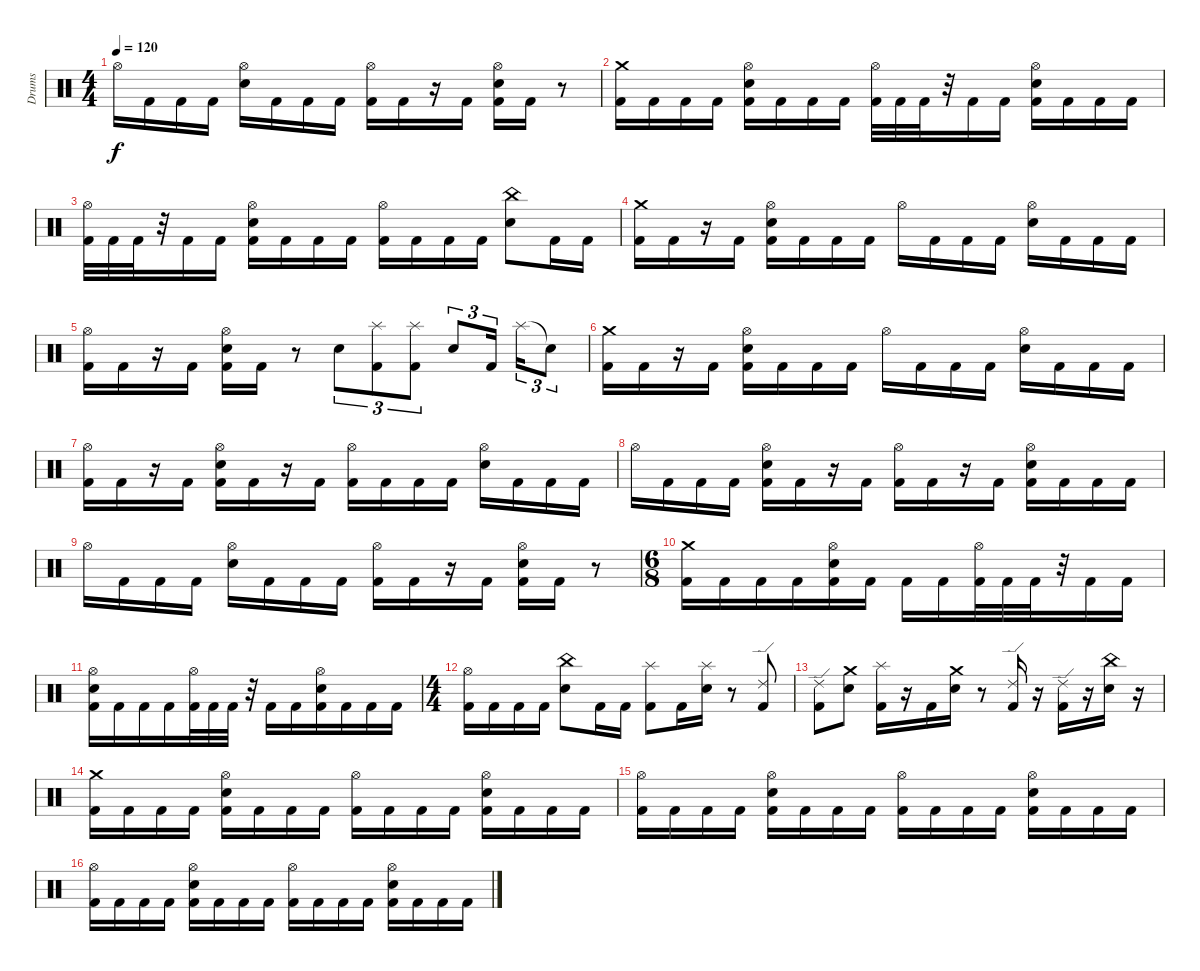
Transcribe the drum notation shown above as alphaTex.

\track ("Drums" "Drums") {instrument percussion}
\staff {score}
\articulation defaults
\ts (4 4)
\tempo 120
\clef neutral
\ks c "Hi-Hat (open)".16{dy f} "Kick (hit) 2".16 "Kick (hit) 2".16 "Kick (hit) 2".16
("Electric Snare (hit)" "Hi-Hat (open)").16 "Kick (hit) 2".16 "Kick (hit) 2".16 "Kick (hit) 2".16 ("Hi-Hat (open)" "Kick (hit) 2").16 "Kick (hit) 2".16 r.16 "Kick (hit) 2".16 ("Electric Snare (hit)" "Hi-Hat (open)" "Kick (hit) 2").16 "Kick (hit) 2".16 r.8 |
("Crash medium (hit)" "Kick (hit) 2").16 "Kick (hit) 2".16 "Kick (hit) 2".16 "Kick (hit) 2".16 ("Electric Snare (hit)" "Hi-Hat (open)" "Kick (hit) 2").16 "Kick (hit) 2".16 "Kick (hit) 2".16 "Kick (hit) 2".16 ("Hi-Hat (open)" "Kick (hit) 2").32 "Kick (hit) 2".32 "Kick (hit) 2".32 r.32 "Kick (hit) 2".16 "Kick (hit) 2".16 ("Electric Snare (hit)" "Hi-Hat (open)" "Kick (hit) 2").16 "Kick (hit) 2".16 "Kick (hit) 2".16 "Kick (hit) 2".16 |
("Hi-Hat (open)" "Kick (hit) 2").32 "Kick (hit) 2".32 "Kick (hit) 2".32 r.32 "Kick (hit) 2".16 "Kick (hit) 2".16 ("Electric Snare (hit)" "Hi-Hat (open)" "Kick (hit) 2").16 "Kick (hit) 2".16 "Kick (hit) 2".16 "Kick (hit) 2".16 ("Hi-Hat (open)" "Kick (hit) 2").16 "Kick (hit) 2".16 "Kick (hit) 2".16 "Kick (hit) 2".16 ("China (hit)" "Electric Snare (hit)").8 "Kick (hit) 2".16 "Kick (hit) 2".16 |
("Crash medium (hit)" "Kick (hit) 2").16 "Kick (hit) 2".16 r.16 "Kick (hit) 2".16 ("Electric Snare (hit)" "Hi-Hat (open)" "Kick (hit) 2").16 "Kick (hit) 2".16 "Kick (hit) 2".16 "Kick (hit) 2".16 "Hi-Hat (open)".16 "Kick (hit) 2".16 "Kick (hit) 2".16 "Kick (hit) 2".16 ("Electric Snare (hit)" "Hi-Hat (open)").16 "Kick (hit) 2".16 "Kick (hit) 2".16 "Kick (hit) 2".16 |
("Hi-Hat (open)" "Kick (hit) 2").16 "Kick (hit) 2".16 r.16 "Kick (hit) 2".16 ("Electric Snare (hit)" "Hi-Hat (open)" "Kick (hit) 2").16 "Kick (hit) 2".16 r.8 "Electric Snare (hit)".8{tu (3 2)} ("Splash (hit)" "Kick (hit) 2").8{tu (3 2)} ("Splash (hit)" "Kick (hit) 2").8{tu (3 2)} "Electric Snare (hit)".8{tu (3 2)} "Kick (hit) 2".16{tu (3 2)} "Splash (hit)".16{tu (3 2)} "Snare (hit)"{t}.8{tu (3 2)} |
("Crash medium (hit)" "Kick (hit) 2").16 "Kick (hit) 2".16 r.16 "Kick (hit) 2".16 ("Electric Snare (hit)" "Hi-Hat (open)" "Kick (hit) 2").16 "Kick (hit) 2".16 "Kick (hit) 2".16 "Kick (hit) 2".16 "Hi-Hat (open)".16 "Kick (hit) 2".16 "Kick (hit) 2".16 "Kick (hit) 2".16 ("Electric Snare (hit)" "Hi-Hat (open)").16 "Kick (hit) 2".16 "Kick (hit) 2".16 "Kick (hit) 2".16 |
("Hi-Hat (open)" "Kick (hit) 2").16 "Kick (hit) 2".16 r.16 "Kick (hit) 2".16 ("Electric Snare (hit)" "Hi-Hat (open)" "Kick (hit) 2").16 "Kick (hit) 2".16 r.16 "Kick (hit) 2".16 ("Hi-Hat (open)" "Kick (hit) 2").16 "Kick (hit) 2".16 "Kick (hit) 2".16 "Kick (hit) 2".16 ("Electric Snare (hit)" "Hi-Hat (open)").16 "Kick (hit) 2".16 "Kick (hit) 2".16 "Kick (hit) 2".16 |
"Hi-Hat (open)".16 "Kick (hit) 2".16 "Kick (hit) 2".16 "Kick (hit) 2".16 ("Electric Snare (hit)" "Hi-Hat (open)" "Kick (hit) 2").16 "Kick (hit) 2".16 r.16 "Kick (hit) 2".16 ("Hi-Hat (open)" "Kick (hit) 2").16 "Kick (hit) 2".16 r.16 "Kick (hit) 2".16 ("Electric Snare (hit)" "Hi-Hat (open)" "Kick (hit) 2").16 "Kick (hit) 2".16 "Kick (hit) 2".16 "Kick (hit) 2".16 |
"Hi-Hat (open)".16 "Kick (hit) 2".16 "Kick (hit) 2".16 "Kick (hit) 2".16 ("Electric Snare (hit)" "Hi-Hat (open)").16 "Kick (hit) 2".16 "Kick (hit) 2".16 "Kick (hit) 2".16 ("Hi-Hat (open)" "Kick (hit) 2").16 "Kick (hit) 2".16 r.16 "Kick (hit) 2".16 ("Electric Snare (hit)" "Hi-Hat (open)" "Kick (hit) 2").16 "Kick (hit) 2".16 r.8 |
\ts (6 8)
("Crash medium (hit)" "Kick (hit) 2").16 "Kick (hit) 2".16 "Kick (hit) 2".16 "Kick (hit) 2".16 ("Electric Snare (hit)" "Hi-Hat (open)" "Kick (hit) 2").16 "Kick (hit) 2".16 "Kick (hit) 2".16 "Kick (hit) 2".16 ("Hi-Hat (open)" "Kick (hit) 2").32 "Kick (hit) 2".32 "Kick (hit) 2".32 r.32 "Kick (hit) 2".16 "Kick (hit) 2".16 |
("Electric Snare (hit)" "Hi-Hat (open)" "Kick (hit) 2").16 "Kick (hit) 2".16 "Kick (hit) 2".16 "Kick (hit) 2".16 ("Hi-Hat (open)" "Kick (hit) 2").32 "Kick (hit) 2".32 "Kick (hit) 2".32 r.32 "Kick (hit) 2".16 "Kick (hit) 2".16 ("Electric Snare (hit)" "Hi-Hat (open)" "Kick (hit) 2").16 "Kick (hit) 2".16 "Kick (hit) 2".16 "Kick (hit) 2".16 |
\ts (4 4)
("Hi-Hat (open)" "Kick (hit) 2").16 "Kick (hit) 2".16 "Kick (hit) 2".16 "Kick (hit) 2".16 ("China (hit)" "Electric Snare (hit)").8 "Kick (hit) 2".16 "Kick (hit) 2".16 ("Splash (hit)" "Kick (hit) 2").8 "Kick (hit) 2".16 ("Splash (hit)" "Electric Snare (hit)").16 r.8 ("Ride (edge) 2" "Kick (hit) 2").8 |
("Ride (edge) 2" "Kick (hit) 2").8 ("Crash medium (hit)" "Electric Snare (hit)").8 ("Splash (hit)" "Kick (hit) 2").16 r.16 "Kick (hit) 2".16 ("Crash medium (hit)" "Electric Snare (hit)").16 r.8 ("Ride (edge) 2" "Kick (hit) 2").16 r.16 ("Ride (edge) 2" "Kick (hit) 2").16 r.16 ("China (hit)" "Electric Snare (hit)").16 r.16 |
("Crash medium (hit)" "Kick (hit) 2").16 "Kick (hit) 2".16 "Kick (hit) 2".16 "Kick (hit) 2".16 ("Hi-Hat (open)" "Electric Snare (hit)" "Kick (hit) 2").16 "Kick (hit) 2".16 "Kick (hit) 2".16 "Kick (hit) 2".16 ("Hi-Hat (open)" "Kick (hit) 2").16 "Kick (hit) 2".16 "Kick (hit) 2".16 "Kick (hit) 2".16 ("Hi-Hat (open)" "Electric Snare (hit)" "Kick (hit) 2").16 "Kick (hit) 2".16 "Kick (hit) 2".16 "Kick (hit) 2".16 |
("Hi-Hat (open)" "Kick (hit) 2").16 "Kick (hit) 2".16 "Kick (hit) 2".16 "Kick (hit) 2".16 ("Hi-Hat (open)" "Electric Snare (hit)" "Kick (hit) 2").16 "Kick (hit) 2".16 "Kick (hit) 2".16 "Kick (hit) 2".16 ("Hi-Hat (open)" "Kick (hit) 2").16 "Kick (hit) 2".16 "Kick (hit) 2".16 "Kick (hit) 2".16 ("Hi-Hat (open)" "Electric Snare (hit)" "Kick (hit) 2").16 "Kick (hit) 2".16 "Kick (hit) 2".16 "Kick (hit) 2".16 |
("Hi-Hat (open)" "Kick (hit) 2").16 "Kick (hit) 2".16 "Kick (hit) 2".16 "Kick (hit) 2".16 ("Hi-Hat (open)" "Electric Snare (hit)" "Kick (hit) 2").16 "Kick (hit) 2".16 "Kick (hit) 2".16 "Kick (hit) 2".16 ("Hi-Hat (open)" "Kick (hit) 2").16 "Kick (hit) 2".16 "Kick (hit) 2".16 "Kick (hit) 2".16 ("Hi-Hat (open)" "Electric Snare (hit)" "Kick (hit) 2").16 "Kick (hit) 2".16 "Kick (hit) 2".16 "Kick (hit) 2".16
